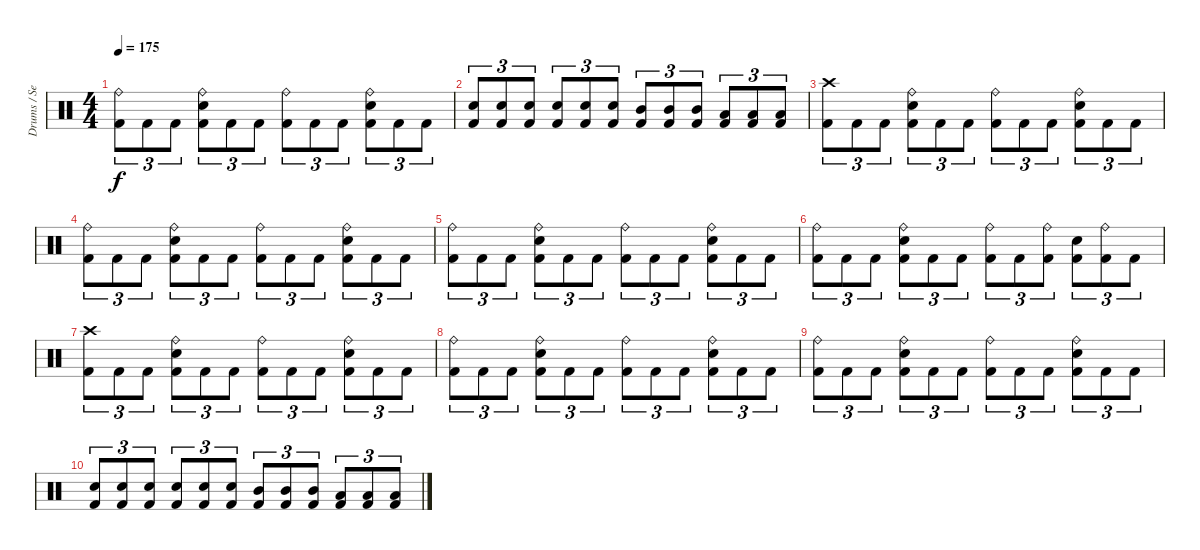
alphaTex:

\track ("Drums / Sean" "Drums / Se") {instrument percussion}
\staff {score}
\articulation defaults
\ts (4 4)
\tempo 175
\clef neutral
\ks c
("Ride (bell)" "Kick (hit) 2").8{tu (3 2) dy f volume 4} "Kick (hit) 2".8{tu (3 2)} "Kick (hit) 2".8{tu (3 2)} ("Ride (bell)" "Electric Snare (hit)" "Kick (hit) 2").8{tu (3 2)} "Kick (hit) 2".8{tu (3 2)} "Kick (hit) 2".8{tu (3 2)} ("Ride (bell)" "Kick (hit) 2").8{tu (3 2)} "Kick (hit) 2".8{tu (3 2)} "Kick (hit) 2".8{tu (3 2)} ("Ride (bell)" "Electric Snare (hit)" "Kick (hit) 2").8{tu (3 2)} "Kick (hit) 2".8{tu (3 2)} "Kick (hit) 2".8{tu (3 2)} |
("Electric Snare (hit)" "Kick (hit) 2").8{tu (3 2)} ("Electric Snare (hit)" "Kick (hit) 2").8{tu (3 2)} ("Electric Snare (hit)" "Kick (hit) 2").8{tu (3 2)} ("Electric Snare (hit)" "Kick (hit) 2").8{tu (3 2)} ("Electric Snare (hit)" "Kick (hit) 2").8{tu (3 2)} ("Electric Snare (hit)" "Kick (hit) 2").8{tu (3 2)} ("Mid Tom (hit)" "Kick (hit) 2").8{tu (3 2)} ("Mid Tom (hit)" "Kick (hit) 2").8{tu (3 2)} ("Mid Tom (hit)" "Kick (hit) 2").8{tu (3 2)} ("Low Tom (hit)" "Kick (hit) 2").8{tu (3 2)} ("Low Tom (hit)" "Kick (hit) 2").8{tu (3 2)} ("Low Tom (hit)" "Kick (hit) 2").8{tu (3 2)} |
("Crash high (hit)" "Kick (hit) 2").8{tu (3 2) volume 0} "Kick (hit) 2".8{tu (3 2)} "Kick (hit) 2".8{tu (3 2)} ("Ride (bell)" "Electric Snare (hit)" "Kick (hit) 2").8{tu (3 2)} "Kick (hit) 2".8{tu (3 2)} "Kick (hit) 2".8{tu (3 2)} ("Ride (bell)" "Kick (hit) 2").8{tu (3 2)} "Kick (hit) 2".8{tu (3 2)} "Kick (hit) 2".8{tu (3 2)} ("Ride (bell)" "Electric Snare (hit)" "Kick (hit) 2").8{tu (3 2)} "Kick (hit) 2".8{tu (3 2)} "Kick (hit) 2".8{tu (3 2)} |
("Ride (bell)" "Kick (hit) 2").8{tu (3 2)} "Kick (hit) 2".8{tu (3 2)} "Kick (hit) 2".8{tu (3 2)} ("Ride (bell)" "Electric Snare (hit)" "Kick (hit) 2").8{tu (3 2)} "Kick (hit) 2".8{tu (3 2)} "Kick (hit) 2".8{tu (3 2)} ("Ride (bell)" "Kick (hit) 2").8{tu (3 2)} "Kick (hit) 2".8{tu (3 2)} "Kick (hit) 2".8{tu (3 2)} ("Ride (bell)" "Electric Snare (hit)" "Kick (hit) 2").8{tu (3 2)} "Kick (hit) 2".8{tu (3 2)} "Kick (hit) 2".8{tu (3 2)} |
("Ride (bell)" "Kick (hit) 2").8{tu (3 2)} "Kick (hit) 2".8{tu (3 2)} "Kick (hit) 2".8{tu (3 2)} ("Ride (bell)" "Electric Snare (hit)" "Kick (hit) 2").8{tu (3 2)} "Kick (hit) 2".8{tu (3 2)} "Kick (hit) 2".8{tu (3 2)} ("Ride (bell)" "Kick (hit) 2").8{tu (3 2)} "Kick (hit) 2".8{tu (3 2)} "Kick (hit) 2".8{tu (3 2)} ("Ride (bell)" "Electric Snare (hit)" "Kick (hit) 2").8{tu (3 2)} "Kick (hit) 2".8{tu (3 2)} "Kick (hit) 2".8{tu (3 2)} |
("Ride (bell)" "Kick (hit) 2").8{tu (3 2)} "Kick (hit) 2".8{tu (3 2)} "Kick (hit) 2".8{tu (3 2)} ("Ride (bell)" "Electric Snare (hit)" "Kick (hit) 2").8{tu (3 2)} "Kick (hit) 2".8{tu (3 2)} "Kick (hit) 2".8{tu (3 2)} ("Ride (bell)" "Kick (hit) 2").8{tu (3 2)} "Kick (hit) 2".8{tu (3 2)} ("Ride (bell)" "Kick (hit) 2").8{tu (3 2)} ("Electric Snare (hit)" "Kick (hit) 2").8{tu (3 2)} ("Ride (bell)" "Kick (hit) 2").8{tu (3 2)} "Kick (hit) 2".8{tu (3 2)} |
("Crash high (hit)" "Kick (hit) 2").8{tu (3 2)} "Kick (hit) 2".8{tu (3 2)} "Kick (hit) 2".8{tu (3 2)} ("Ride (bell)" "Electric Snare (hit)" "Kick (hit) 2").8{tu (3 2)} "Kick (hit) 2".8{tu (3 2)} "Kick (hit) 2".8{tu (3 2)} ("Ride (bell)" "Kick (hit) 2").8{tu (3 2)} "Kick (hit) 2".8{tu (3 2)} "Kick (hit) 2".8{tu (3 2)} ("Ride (bell)" "Electric Snare (hit)" "Kick (hit) 2").8{tu (3 2)} "Kick (hit) 2".8{tu (3 2)} "Kick (hit) 2".8{tu (3 2)} |
("Ride (bell)" "Kick (hit) 2").8{tu (3 2)} "Kick (hit) 2".8{tu (3 2)} "Kick (hit) 2".8{tu (3 2)} ("Ride (bell)" "Electric Snare (hit)" "Kick (hit) 2").8{tu (3 2)} "Kick (hit) 2".8{tu (3 2)} "Kick (hit) 2".8{tu (3 2)} ("Ride (bell)" "Kick (hit) 2").8{tu (3 2)} "Kick (hit) 2".8{tu (3 2)} "Kick (hit) 2".8{tu (3 2)} ("Ride (bell)" "Electric Snare (hit)" "Kick (hit) 2").8{tu (3 2)} "Kick (hit) 2".8{tu (3 2)} "Kick (hit) 2".8{tu (3 2)} |
("Ride (bell)" "Kick (hit) 2").8{tu (3 2)} "Kick (hit) 2".8{tu (3 2)} "Kick (hit) 2".8{tu (3 2)} ("Ride (bell)" "Electric Snare (hit)" "Kick (hit) 2").8{tu (3 2)} "Kick (hit) 2".8{tu (3 2)} "Kick (hit) 2".8{tu (3 2)} ("Ride (bell)" "Kick (hit) 2").8{tu (3 2)} "Kick (hit) 2".8{tu (3 2)} "Kick (hit) 2".8{tu (3 2)} ("Ride (bell)" "Electric Snare (hit)" "Kick (hit) 2").8{tu (3 2)} "Kick (hit) 2".8{tu (3 2)} "Kick (hit) 2".8{tu (3 2)} |
("Electric Snare (hit)" "Kick (hit) 2").8{tu (3 2)} ("Electric Snare (hit)" "Kick (hit) 2").8{tu (3 2)} ("Electric Snare (hit)" "Kick (hit) 2").8{tu (3 2)} ("Electric Snare (hit)" "Kick (hit) 2").8{tu (3 2)} ("Electric Snare (hit)" "Kick (hit) 2").8{tu (3 2)} ("Electric Snare (hit)" "Kick (hit) 2").8{tu (3 2)} ("Mid Tom (hit)" "Kick (hit) 2").8{tu (3 2)} ("Mid Tom (hit)" "Kick (hit) 2").8{tu (3 2)} ("Mid Tom (hit)" "Kick (hit) 2").8{tu (3 2)} ("Low Tom (hit)" "Kick (hit) 2").8{tu (3 2)} ("Low Tom (hit)" "Kick (hit) 2").8{tu (3 2)} ("Low Tom (hit)" "Kick (hit) 2").8{tu (3 2)}
